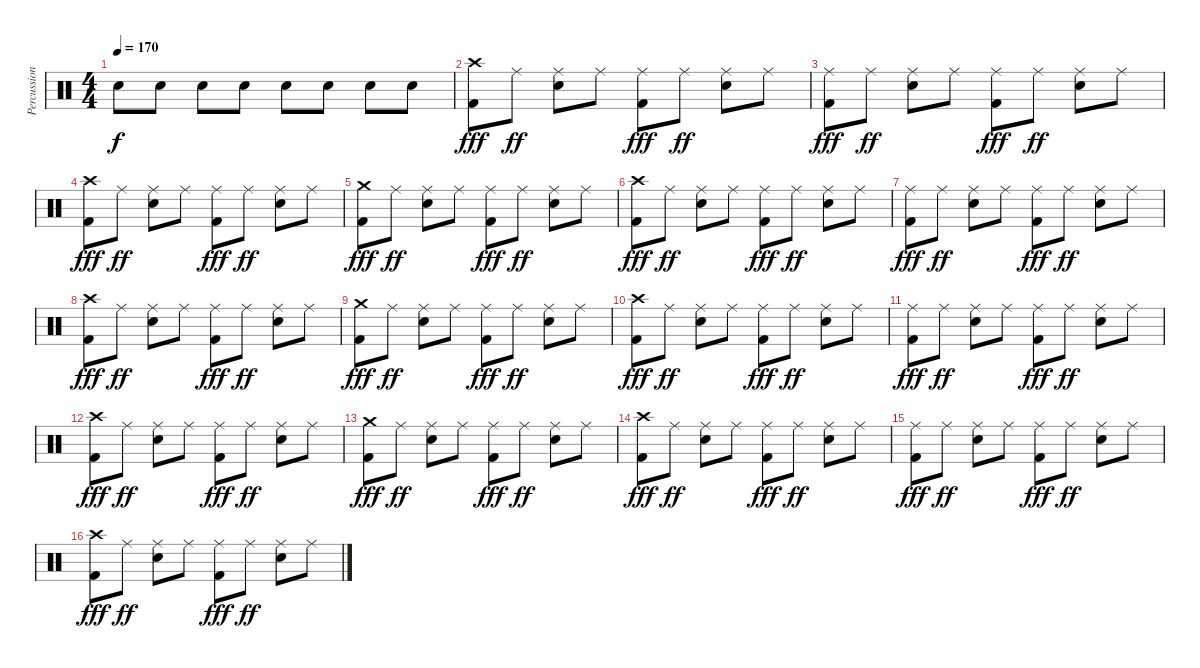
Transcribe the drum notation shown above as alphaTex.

\track ("Percussion" "Percussion") {instrument percussion}
\staff {score}
\articulation defaults
\ts (4 4)
\tempo 170
\clef neutral
\ks c "Electric Snare (hit)".8{dy f} "Electric Snare (hit)".8 "Electric Snare (hit)".8 "Electric Snare (hit)".8 "Electric Snare (hit)".8 "Electric Snare (hit)".8 "Electric Snare (hit)".8 "Electric Snare (hit)".8
|
("Crash high (hit)" "Kick (hit) 2").8{dy fff} "Ride (middle)".8{dy ff} ("Ride (middle)" "Electric Snare (hit)").8 "Ride (middle)".8 ("Ride (middle)" "Kick (hit) 2").8{dy fff} "Ride (middle)".8{dy ff} ("Ride (middle)" "Electric Snare (hit)").8 "Ride (middle)".8 |
("Ride (middle)" "Kick (hit) 2").8{dy fff} "Ride (middle)".8{dy ff} ("Ride (middle)" "Electric Snare (hit)").8 "Ride (middle)".8 ("Ride (middle)" "Kick (hit) 2").8{dy fff} "Ride (middle)".8{dy ff} ("Ride (middle)" "Electric Snare (hit)").8 "Ride (middle)".8 |
("Crash high (hit)" "Kick (hit) 2").8{dy fff} "Ride (middle)".8{dy ff} ("Ride (middle)" "Electric Snare (hit)").8 "Ride (middle)".8 ("Ride (middle)" "Kick (hit) 2").8{dy fff} "Ride (middle)".8{dy ff} ("Ride (middle)" "Electric Snare (hit)").8 "Ride (middle)".8 |
("Crash medium (hit)" "Kick (hit) 2").8{dy fff} "Ride (middle)".8{dy ff} ("Ride (middle)" "Electric Snare (hit)").8 "Ride (middle)".8 ("Ride (middle)" "Kick (hit) 2").8{dy fff} "Ride (middle)".8{dy ff} ("Ride (middle)" "Electric Snare (hit)").8 "Ride (middle)".8 |
("Crash high (hit)" "Kick (hit) 2").8{dy fff} "Ride (middle)".8{dy ff} ("Ride (middle)" "Electric Snare (hit)").8 "Ride (middle)".8 ("Ride (middle)" "Kick (hit) 2").8{dy fff} "Ride (middle)".8{dy ff} ("Ride (middle)" "Electric Snare (hit)").8 "Ride (middle)".8 |
("Ride (middle)" "Kick (hit) 2").8{dy fff} "Ride (middle)".8{dy ff} ("Ride (middle)" "Electric Snare (hit)").8 "Ride (middle)".8 ("Ride (middle)" "Kick (hit) 2").8{dy fff} "Ride (middle)".8{dy ff} ("Ride (middle)" "Electric Snare (hit)").8 "Ride (middle)".8 |
("Crash high (hit)" "Kick (hit) 2").8{dy fff} "Ride (middle)".8{dy ff} ("Ride (middle)" "Electric Snare (hit)").8 "Ride (middle)".8 ("Ride (middle)" "Kick (hit) 2").8{dy fff} "Ride (middle)".8{dy ff} ("Ride (middle)" "Electric Snare (hit)").8 "Ride (middle)".8 |
("Crash medium (hit)" "Kick (hit) 2").8{dy fff} "Ride (middle)".8{dy ff} ("Ride (middle)" "Electric Snare (hit)").8 "Ride (middle)".8 ("Ride (middle)" "Kick (hit) 2").8{dy fff} "Ride (middle)".8{dy ff} ("Ride (middle)" "Electric Snare (hit)").8 "Ride (middle)".8 |
("Crash high (hit)" "Kick (hit) 2").8{dy fff} "Ride (middle)".8{dy ff} ("Ride (middle)" "Electric Snare (hit)").8 "Ride (middle)".8 ("Ride (middle)" "Kick (hit) 2").8{dy fff} "Ride (middle)".8{dy ff} ("Ride (middle)" "Electric Snare (hit)").8 "Ride (middle)".8 |
("Ride (middle)" "Kick (hit) 2").8{dy fff} "Ride (middle)".8{dy ff} ("Ride (middle)" "Electric Snare (hit)").8 "Ride (middle)".8 ("Ride (middle)" "Kick (hit) 2").8{dy fff} "Ride (middle)".8{dy ff} ("Ride (middle)" "Electric Snare (hit)").8 "Ride (middle)".8 |
("Crash high (hit)" "Kick (hit) 2").8{dy fff} "Ride (middle)".8{dy ff} ("Ride (middle)" "Electric Snare (hit)").8 "Ride (middle)".8 ("Ride (middle)" "Kick (hit) 2").8{dy fff} "Ride (middle)".8{dy ff} ("Ride (middle)" "Electric Snare (hit)").8 "Ride (middle)".8 |
("Crash medium (hit)" "Kick (hit) 2").8{dy fff} "Ride (middle)".8{dy ff} ("Ride (middle)" "Electric Snare (hit)").8 "Ride (middle)".8 ("Ride (middle)" "Kick (hit) 2").8{dy fff} "Ride (middle)".8{dy ff} ("Ride (middle)" "Electric Snare (hit)").8 "Ride (middle)".8 |
("Crash high (hit)" "Kick (hit) 2").8{dy fff} "Ride (middle)".8{dy ff} ("Ride (middle)" "Electric Snare (hit)").8 "Ride (middle)".8 ("Ride (middle)" "Kick (hit) 2").8{dy fff} "Ride (middle)".8{dy ff} ("Ride (middle)" "Electric Snare (hit)").8 "Ride (middle)".8 |
("Ride (middle)" "Kick (hit) 2").8{dy fff} "Ride (middle)".8{dy ff} ("Ride (middle)" "Electric Snare (hit)").8 "Ride (middle)".8 ("Ride (middle)" "Kick (hit) 2").8{dy fff} "Ride (middle)".8{dy ff} ("Ride (middle)" "Electric Snare (hit)").8 "Ride (middle)".8 |
("Crash high (hit)" "Kick (hit) 2").8{dy fff} "Ride (middle)".8{dy ff} ("Ride (middle)" "Electric Snare (hit)").8 "Ride (middle)".8 ("Ride (middle)" "Kick (hit) 2").8{dy fff} "Ride (middle)".8{dy ff} ("Ride (middle)" "Electric Snare (hit)").8 "Ride (middle)".8
